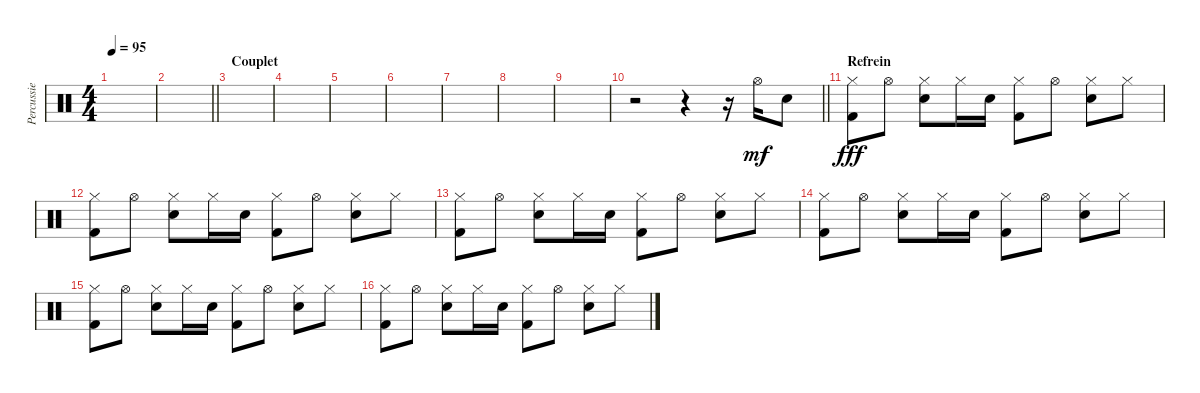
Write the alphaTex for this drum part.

\track ("Percussie" "Percussie") {instrument percussion}
\staff {score}
\articulation defaults
\ts (4 4)
\tempo 95
\clef neutral
\ks c
|
\barLineRight lightlight
|
\section ("" "Couplet")
|
|
|
|
|
|
|
\barLineRight lightlight
r.2 r.4 r.16 "Hi-Hat (open)".16{dy mf} "Snare (hit) 2".8 |
\section ("" "Refrein")
("Hi-Hat (closed)" "Kick (hit) 2").8{dy fff} "Hi-Hat (open)".8 ("Hi-Hat (closed)" "Snare (hit) 2").8 "Hi-Hat (closed)".16 "Snare (hit) 2".16 ("Hi-Hat (closed)" "Kick (hit) 2").8 "Hi-Hat (open)".8 ("Hi-Hat (closed)" "Snare (hit) 2").8 "Hi-Hat (closed)".8 |
("Hi-Hat (closed)" "Kick (hit) 2").8 "Hi-Hat (open)".8 ("Hi-Hat (closed)" "Snare (hit) 2").8 "Hi-Hat (closed)".16 "Snare (hit) 2".16 ("Hi-Hat (closed)" "Kick (hit) 2").8 "Hi-Hat (open)".8 ("Hi-Hat (closed)" "Snare (hit) 2").8 "Hi-Hat (closed)".8 |
("Hi-Hat (closed)" "Kick (hit) 2").8 "Hi-Hat (open)".8 ("Hi-Hat (closed)" "Snare (hit) 2").8 "Hi-Hat (closed)".16 "Snare (hit) 2".16 ("Hi-Hat (closed)" "Kick (hit) 2").8 "Hi-Hat (open)".8 ("Hi-Hat (closed)" "Snare (hit) 2").8 "Hi-Hat (closed)".8 |
("Hi-Hat (closed)" "Kick (hit) 2").8 "Hi-Hat (open)".8 ("Hi-Hat (closed)" "Snare (hit) 2").8 "Hi-Hat (closed)".16 "Snare (hit) 2".16 ("Hi-Hat (closed)" "Kick (hit) 2").8 "Hi-Hat (open)".8 ("Hi-Hat (closed)" "Snare (hit) 2").8 "Hi-Hat (closed)".8 |
("Hi-Hat (closed)" "Kick (hit) 2").8 "Hi-Hat (open)".8 ("Hi-Hat (closed)" "Snare (hit) 2").8 "Hi-Hat (closed)".16 "Snare (hit) 2".16 ("Hi-Hat (closed)" "Kick (hit) 2").8 "Hi-Hat (open)".8 ("Hi-Hat (closed)" "Snare (hit) 2").8 "Hi-Hat (closed)".8 |
("Hi-Hat (closed)" "Kick (hit) 2").8 "Hi-Hat (open)".8 ("Hi-Hat (closed)" "Snare (hit) 2").8 "Hi-Hat (closed)".16 "Snare (hit) 2".16 ("Hi-Hat (closed)" "Kick (hit) 2").8 "Hi-Hat (open)".8 ("Hi-Hat (closed)" "Snare (hit) 2").8 "Hi-Hat (closed)".8
